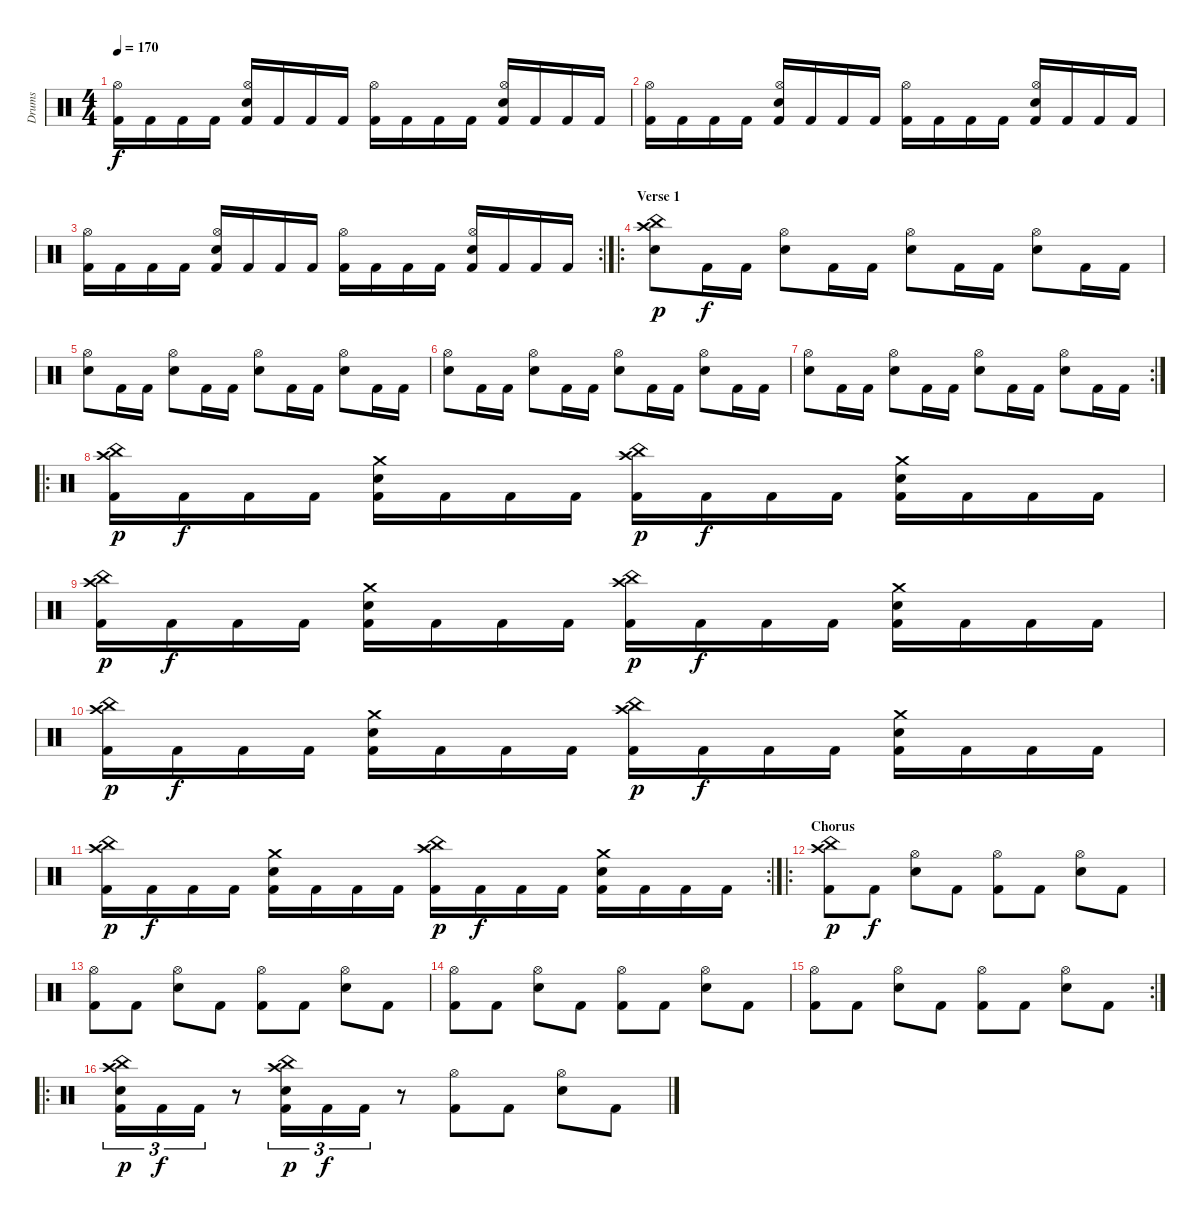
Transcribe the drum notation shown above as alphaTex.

\track ("Drums" "Drums") {instrument percussion}
\staff {score}
\articulation defaults
\ts (4 4)
\tempo 170
\clef neutral
\ks c
("Kick (hit) 2" "Hi-Hat (open)").16{dy f} "Kick (hit) 2".16 "Kick (hit) 2".16 "Kick (hit) 2".16 ("Kick (hit) 2" "Hi-Hat (open)" "Electric Snare (hit)").16 "Kick (hit) 2".16 "Kick (hit) 2".16 "Kick (hit) 2".16 ("Kick (hit) 2" "Hi-Hat (open)").16 "Kick (hit) 2".16 "Kick (hit) 2".16 "Kick (hit) 2".16 ("Kick (hit) 2" "Hi-Hat (open)" "Electric Snare (hit)").16 "Kick (hit) 2".16 "Kick (hit) 2".16 "Kick (hit) 2".16 |
("Kick (hit) 2" "Hi-Hat (open)").16 "Kick (hit) 2".16 "Kick (hit) 2".16 "Kick (hit) 2".16 ("Kick (hit) 2" "Hi-Hat (open)" "Electric Snare (hit)").16 "Kick (hit) 2".16 "Kick (hit) 2".16 "Kick (hit) 2".16 ("Kick (hit) 2" "Hi-Hat (open)").16 "Kick (hit) 2".16 "Kick (hit) 2".16 "Kick (hit) 2".16 ("Kick (hit) 2" "Hi-Hat (open)" "Electric Snare (hit)").16 "Kick (hit) 2".16 "Kick (hit) 2".16 "Kick (hit) 2".16 |
\rc 2
("Kick (hit) 2" "Hi-Hat (open)").16 "Kick (hit) 2".16 "Kick (hit) 2".16 "Kick (hit) 2".16 ("Kick (hit) 2" "Hi-Hat (open)" "Electric Snare (hit)").16 "Kick (hit) 2".16 "Kick (hit) 2".16 "Kick (hit) 2".16 ("Kick (hit) 2" "Hi-Hat (open)").16 "Kick (hit) 2".16 "Kick (hit) 2".16 "Kick (hit) 2".16 ("Kick (hit) 2" "Hi-Hat (open)" "Electric Snare (hit)").16 "Kick (hit) 2".16 "Kick (hit) 2".16 "Kick (hit) 2".16 |
\ro
\section ("" "Verse 1")
("Electric Snare (hit)" "China (hit)" "Crash high (hit)").8{dy p} "Kick (hit) 2".16{dy f} "Kick (hit) 2".16 ("Electric Snare (hit)" "Hi-Hat (open)").8 "Kick (hit) 2".16 "Kick (hit) 2".16 ("Electric Snare (hit)" "Hi-Hat (open)").8 "Kick (hit) 2".16 "Kick (hit) 2".16 ("Electric Snare (hit)" "Hi-Hat (open)").8 "Kick (hit) 2".16 "Kick (hit) 2".16 |
("Electric Snare (hit)" "Hi-Hat (open)").8 "Kick (hit) 2".16 "Kick (hit) 2".16 ("Electric Snare (hit)" "Hi-Hat (open)").8 "Kick (hit) 2".16 "Kick (hit) 2".16 ("Electric Snare (hit)" "Hi-Hat (open)").8 "Kick (hit) 2".16 "Kick (hit) 2".16 ("Electric Snare (hit)" "Hi-Hat (open)").8 "Kick (hit) 2".16 "Kick (hit) 2".16 |
("Electric Snare (hit)" "Hi-Hat (open)").8 "Kick (hit) 2".16 "Kick (hit) 2".16 ("Electric Snare (hit)" "Hi-Hat (open)").8 "Kick (hit) 2".16 "Kick (hit) 2".16 ("Electric Snare (hit)" "Hi-Hat (open)").8 "Kick (hit) 2".16 "Kick (hit) 2".16 ("Electric Snare (hit)" "Hi-Hat (open)").8 "Kick (hit) 2".16 "Kick (hit) 2".16 |
\rc 2
("Electric Snare (hit)" "Hi-Hat (open)").8 "Kick (hit) 2".16 "Kick (hit) 2".16 ("Electric Snare (hit)" "Hi-Hat (open)").8 "Kick (hit) 2".16 "Kick (hit) 2".16 ("Electric Snare (hit)" "Hi-Hat (open)").8 "Kick (hit) 2".16 "Kick (hit) 2".16 ("Electric Snare (hit)" "Hi-Hat (open)").8 "Kick (hit) 2".16 "Kick (hit) 2".16 |
\ro
("Kick (hit) 2" "China (hit)" "Crash high (hit)").16{dy p} "Kick (hit) 2".16{dy f} "Kick (hit) 2".16 "Kick (hit) 2".16 ("Kick (hit) 2" "Crash medium (hit)" "Electric Snare (hit)").16 "Kick (hit) 2".16 "Kick (hit) 2".16 "Kick (hit) 2".16 ("Kick (hit) 2" "China (hit)" "Crash high (hit)").16{dy p} "Kick (hit) 2".16{dy f} "Kick (hit) 2".16 "Kick (hit) 2".16 ("Kick (hit) 2" "Crash medium (hit)" "Electric Snare (hit)").16 "Kick (hit) 2".16 "Kick (hit) 2".16 "Kick (hit) 2".16 |
("Kick (hit) 2" "China (hit)" "Crash high (hit)").16{dy p} "Kick (hit) 2".16{dy f} "Kick (hit) 2".16 "Kick (hit) 2".16 ("Kick (hit) 2" "Crash medium (hit)" "Electric Snare (hit)").16 "Kick (hit) 2".16 "Kick (hit) 2".16 "Kick (hit) 2".16 ("Kick (hit) 2" "China (hit)" "Crash high (hit)").16{dy p} "Kick (hit) 2".16{dy f} "Kick (hit) 2".16 "Kick (hit) 2".16 ("Kick (hit) 2" "Crash medium (hit)" "Electric Snare (hit)").16 "Kick (hit) 2".16 "Kick (hit) 2".16 "Kick (hit) 2".16 |
("Kick (hit) 2" "China (hit)" "Crash high (hit)").16{dy p} "Kick (hit) 2".16{dy f} "Kick (hit) 2".16 "Kick (hit) 2".16 ("Kick (hit) 2" "Crash medium (hit)" "Electric Snare (hit)").16 "Kick (hit) 2".16 "Kick (hit) 2".16 "Kick (hit) 2".16 ("Kick (hit) 2" "China (hit)" "Crash high (hit)").16{dy p} "Kick (hit) 2".16{dy f} "Kick (hit) 2".16 "Kick (hit) 2".16 ("Kick (hit) 2" "Crash medium (hit)" "Electric Snare (hit)").16 "Kick (hit) 2".16 "Kick (hit) 2".16 "Kick (hit) 2".16 |
\rc 2
("Kick (hit) 2" "China (hit)" "Crash high (hit)").16{dy p} "Kick (hit) 2".16{dy f} "Kick (hit) 2".16 "Kick (hit) 2".16 ("Kick (hit) 2" "Crash medium (hit)" "Electric Snare (hit)").16 "Kick (hit) 2".16 "Kick (hit) 2".16 "Kick (hit) 2".16 ("Kick (hit) 2" "China (hit)" "Crash high (hit)").16{dy p} "Kick (hit) 2".16{dy f} "Kick (hit) 2".16 "Kick (hit) 2".16 ("Kick (hit) 2" "Crash medium (hit)" "Electric Snare (hit)").16 "Kick (hit) 2".16 "Kick (hit) 2".16 "Kick (hit) 2".16 |
\ro
\section ("" "Chorus")
("Kick (hit) 2" "China (hit)" "Crash high (hit)").8{dy p} "Kick (hit) 2".8{dy f} ("Electric Snare (hit)" "Hi-Hat (open)").8 "Kick (hit) 2".8 ("Kick (hit) 2" "Hi-Hat (open)").8 "Kick (hit) 2".8 ("Electric Snare (hit)" "Hi-Hat (open)").8 "Kick (hit) 2".8 |
("Kick (hit) 2" "Hi-Hat (open)").8 "Kick (hit) 2".8 ("Electric Snare (hit)" "Hi-Hat (open)").8 "Kick (hit) 2".8 ("Kick (hit) 2" "Hi-Hat (open)").8 "Kick (hit) 2".8 ("Electric Snare (hit)" "Hi-Hat (open)").8 "Kick (hit) 2".8 |
("Kick (hit) 2" "Hi-Hat (open)").8 "Kick (hit) 2".8 ("Electric Snare (hit)" "Hi-Hat (open)").8 "Kick (hit) 2".8 ("Kick (hit) 2" "Hi-Hat (open)").8 "Kick (hit) 2".8 ("Electric Snare (hit)" "Hi-Hat (open)").8 "Kick (hit) 2".8 |
\rc 2
("Kick (hit) 2" "Hi-Hat (open)").8 "Kick (hit) 2".8 ("Electric Snare (hit)" "Hi-Hat (open)").8 "Kick (hit) 2".8 ("Kick (hit) 2" "Hi-Hat (open)").8 "Kick (hit) 2".8 ("Electric Snare (hit)" "Hi-Hat (open)").8 "Kick (hit) 2".8 |
\ro
("Kick (hit) 2" "China (hit)" "Crash high (hit)" "Electric Snare (hit)").16{tu (3 2) dy p} "Kick (hit) 2".16{tu (3 2) dy f} "Kick (hit) 2".16{tu (3 2)} r.8 ("Kick (hit) 2" "China (hit)" "Crash high (hit)" "Electric Snare (hit)").16{tu (3 2) dy p} "Kick (hit) 2".16{tu (3 2) dy f} "Kick (hit) 2".16{tu (3 2)} r.8 ("Kick (hit) 2" "Hi-Hat (open)").8 "Kick (hit) 2".8 ("Electric Snare (hit)" "Hi-Hat (open)").8 "Kick (hit) 2".8
